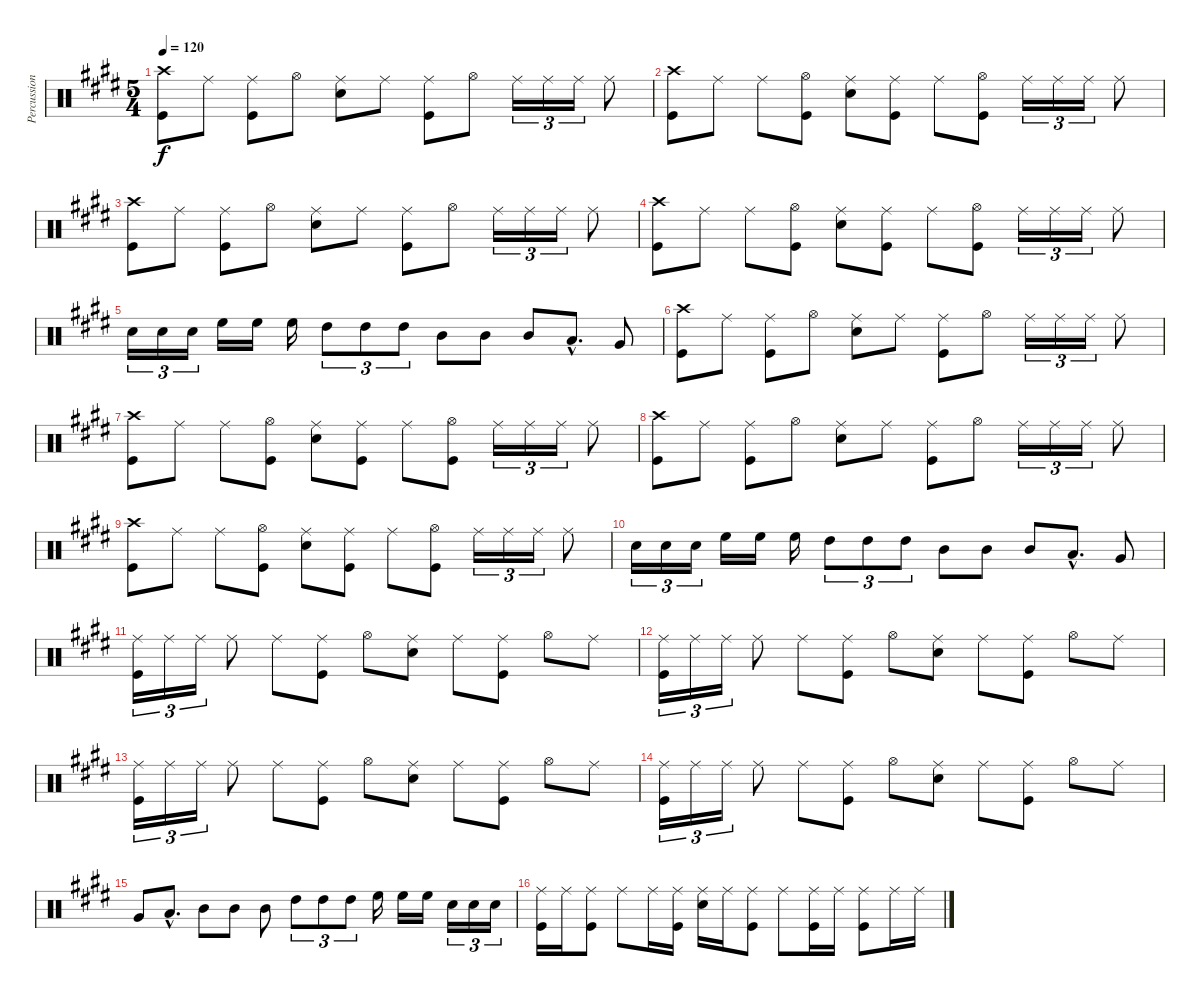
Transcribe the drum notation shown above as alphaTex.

\track ("Percussion" "Percussion") {instrument percussion}
\staff {score}
\articulation defaults
\ts (5 4)
\tempo 120
\clef neutral
\ks e
("Crash high (hit)" "Kick (hit)").8{dy f} "Ride (middle)".8 ("Ride (middle)" "Kick (hit)").8 "Hi-Hat (open)".8 ("Ride (middle)" "Snare (hit) 2").8 "Ride (middle)".8 ("Ride (middle)" "Kick (hit)").8 "Hi-Hat (open)".8 "Ride (middle)".16{tu (3 2)} "Ride (middle)".16{tu (3 2)} "Ride (middle)".16{tu (3 2)} "Ride (middle)".8 |
("Crash high (hit)" "Kick (hit)").8 "Ride (middle)".8 "Ride (middle)".8 ("Hi-Hat (open)" "Kick (hit)").8 ("Ride (middle)" "Snare (hit) 2").8 ("Ride (middle)" "Kick (hit)").8 "Ride (middle)".8 ("Hi-Hat (open)" "Kick (hit)").8 "Ride (middle)".16{tu (3 2)} "Ride (middle)".16{tu (3 2)} "Ride (middle)".16{tu (3 2)} "Ride (middle)".8 |
("Crash high (hit)" "Kick (hit)").8 "Ride (middle)".8 ("Ride (middle)" "Kick (hit)").8 "Hi-Hat (open)".8 ("Ride (middle)" "Snare (hit) 2").8 "Ride (middle)".8 ("Ride (middle)" "Kick (hit)").8 "Hi-Hat (open)".8 "Ride (middle)".16{tu (3 2)} "Ride (middle)".16{tu (3 2)} "Ride (middle)".16{tu (3 2)} "Ride (middle)".8 |
("Crash high (hit)" "Kick (hit)").8 "Ride (middle)".8 "Ride (middle)".8 ("Hi-Hat (open)" "Kick (hit)").8 ("Ride (middle)" "Snare (hit) 2").8 ("Ride (middle)" "Kick (hit)").8 "Ride (middle)".8 ("Hi-Hat (open)" "Kick (hit)").8 "Ride (middle)".16{tu (3 2)} "Ride (middle)".16{tu (3 2)} "Ride (middle)".16{tu (3 2)} "Ride (middle)".8 |
"Snare (hit) 2".16{tu (3 2)} "Snare (hit) 2".16{tu (3 2)} "Snare (hit) 2".16{tu (3 2)} "High Floor Tom (hit)".16 "High Floor Tom (hit)".16 "High Floor Tom (hit)".16 "High Tom (hit)".8{tu (3 2)} "High Tom (hit)".8{tu (3 2)} "High Tom (hit)".8{tu (3 2)} "Mid Tom (hit)".8 "Mid Tom (hit)".8 "Mid Tom (hit)".8 "Low Tom (hit)"{hac}.8{d} "Very Low Tom (hit)".8 |
("Crash high (hit)" "Kick (hit)").8 "Ride (middle)".8 ("Ride (middle)" "Kick (hit)").8 "Hi-Hat (open)".8 ("Ride (middle)" "Snare (hit) 2").8 "Ride (middle)".8 ("Ride (middle)" "Kick (hit)").8 "Hi-Hat (open)".8 "Ride (middle)".16{tu (3 2)} "Ride (middle)".16{tu (3 2)} "Ride (middle)".16{tu (3 2)} "Ride (middle)".8 |
("Crash high (hit)" "Kick (hit)").8 "Ride (middle)".8 "Ride (middle)".8 ("Hi-Hat (open)" "Kick (hit)").8 ("Ride (middle)" "Snare (hit) 2").8 ("Ride (middle)" "Kick (hit)").8 "Ride (middle)".8 ("Hi-Hat (open)" "Kick (hit)").8 "Ride (middle)".16{tu (3 2)} "Ride (middle)".16{tu (3 2)} "Ride (middle)".16{tu (3 2)} "Ride (middle)".8 |
("Crash high (hit)" "Kick (hit)").8 "Ride (middle)".8 ("Ride (middle)" "Kick (hit)").8 "Hi-Hat (open)".8 ("Ride (middle)" "Snare (hit) 2").8 "Ride (middle)".8 ("Ride (middle)" "Kick (hit)").8 "Hi-Hat (open)".8 "Ride (middle)".16{tu (3 2)} "Ride (middle)".16{tu (3 2)} "Ride (middle)".16{tu (3 2)} "Ride (middle)".8 |
("Crash high (hit)" "Kick (hit)").8 "Ride (middle)".8 "Ride (middle)".8 ("Hi-Hat (open)" "Kick (hit)").8 ("Ride (middle)" "Snare (hit) 2").8 ("Ride (middle)" "Kick (hit)").8 "Ride (middle)".8 ("Hi-Hat (open)" "Kick (hit)").8 "Ride (middle)".16{tu (3 2)} "Ride (middle)".16{tu (3 2)} "Ride (middle)".16{tu (3 2)} "Ride (middle)".8 |
"Snare (hit) 2".16{tu (3 2)} "Snare (hit) 2".16{tu (3 2)} "Snare (hit) 2".16{tu (3 2)} "High Floor Tom (hit)".16 "High Floor Tom (hit)".16 "High Floor Tom (hit)".16 "High Tom (hit)".8{tu (3 2)} "High Tom (hit)".8{tu (3 2)} "High Tom (hit)".8{tu (3 2)} "Mid Tom (hit)".8 "Mid Tom (hit)".8 "Mid Tom (hit)".8 "Low Tom (hit)"{hac}.8{d} "Very Low Tom (hit)".8 |
("Ride (middle)" "Kick (hit)").16{tu (3 2)} "Ride (middle)".16{tu (3 2)} "Ride (middle)".16{tu (3 2)} "Ride (middle)".8 "Ride (middle)".8 ("Ride (middle)" "Kick (hit)").8 "Hi-Hat (open)".8 ("Ride (middle)" "Snare (hit) 2").8 "Ride (middle)".8 ("Ride (middle)" "Kick (hit)").8 "Hi-Hat (open)".8 "Ride (middle)".8 |
("Ride (middle)" "Kick (hit)").16{tu (3 2)} "Ride (middle)".16{tu (3 2)} "Ride (middle)".16{tu (3 2)} "Ride (middle)".8 "Ride (middle)".8 ("Ride (middle)" "Kick (hit)").8 "Hi-Hat (open)".8 ("Ride (middle)" "Snare (hit) 2").8 "Ride (middle)".8 ("Ride (middle)" "Kick (hit)").8 "Hi-Hat (open)".8 "Ride (middle)".8 |
("Ride (middle)" "Kick (hit)").16{tu (3 2)} "Ride (middle)".16{tu (3 2)} "Ride (middle)".16{tu (3 2)} "Ride (middle)".8 "Ride (middle)".8 ("Ride (middle)" "Kick (hit)").8 "Hi-Hat (open)".8 ("Ride (middle)" "Snare (hit) 2").8 "Ride (middle)".8 ("Ride (middle)" "Kick (hit)").8 "Hi-Hat (open)".8 "Ride (middle)".8 |
("Ride (middle)" "Kick (hit)").16{tu (3 2)} "Ride (middle)".16{tu (3 2)} "Ride (middle)".16{tu (3 2)} "Ride (middle)".8 "Ride (middle)".8 ("Ride (middle)" "Kick (hit)").8 "Hi-Hat (open)".8 ("Ride (middle)" "Snare (hit) 2").8 "Ride (middle)".8 ("Ride (middle)" "Kick (hit)").8 "Hi-Hat (open)".8 "Ride (middle)".8 |
"Very Low Tom (hit)".8 "Low Tom (hit)"{hac}.8{d} "Mid Tom (hit)".8 "Mid Tom (hit)".8 "Mid Tom (hit)".8 "High Tom (hit)".8{tu (3 2)} "High Tom (hit)".8{tu (3 2)} "High Tom (hit)".8{tu (3 2)} "High Floor Tom (hit)".16 "High Floor Tom (hit)".16 "High Floor Tom (hit)".16 "Snare (hit) 2".16{tu (3 2)} "Snare (hit) 2".16{tu (3 2)} "Snare (hit) 2".16{tu (3 2)} |
("Ride (middle)" "Kick (hit)").16 "Ride (middle)".16 ("Ride (middle)" "Kick (hit)").8 "Ride (middle)".8 "Ride (middle)".16 ("Ride (middle)" "Kick (hit)").16 ("Ride (middle)" "Snare (hit) 2").16 "Ride (middle)".16 ("Ride (middle)" "Kick (hit)").8 "Ride (middle)".8 ("Ride (middle)" "Kick (hit)").16 "Ride (middle)".16 ("Ride (middle)" "Kick (hit)").8 "Ride (middle)".16 "Ride (middle)".16
